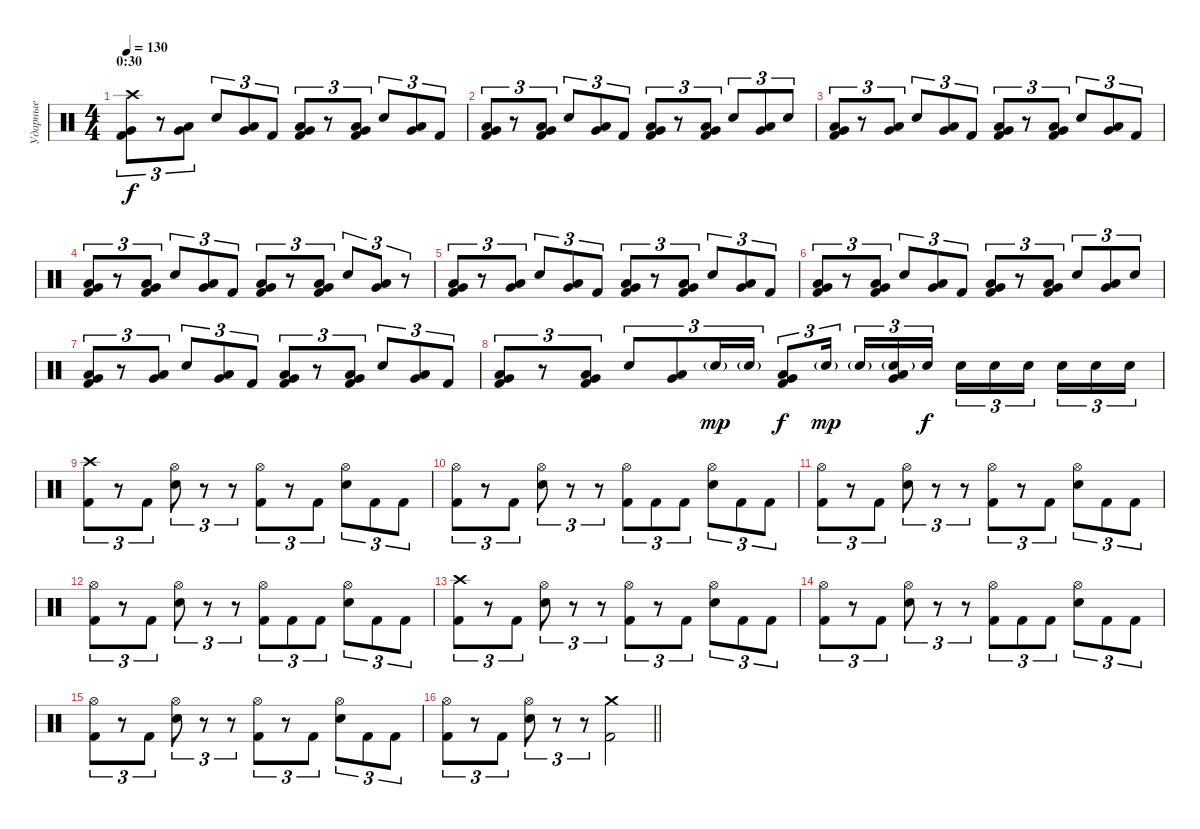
\track ("Ударные" "Ударные") {instrument percussion}
\staff {score}
\articulation defaults
\ts (4 4)
\section ("" "0:30")
\tempo 130
\clef neutral
\ks c
("Crash high (hit)" "Kick (hit) 2" "Very Low Tom (hit)").8{tu (3 2) dy f} r.8{tu (3 2)} ("Low Floor Tom (hit)" "Very Low Tom (hit)").8{tu (3 2)} "Electric Snare (hit)".8{tu (3 2)} ("Low Floor Tom (hit)" "Very Low Tom (hit)").8{tu (3 2)} "Kick (hit) 2".8{tu (3 2)} ("Low Floor Tom (hit)" "Kick (hit) 2" "Very Low Tom (hit)").8{tu (3 2)} r.8{tu (3 2)} ("Low Floor Tom (hit)" "Kick (hit) 2" "Very Low Tom (hit)").8{tu (3 2)} "Electric Snare (hit)".8{tu (3 2)} ("Low Floor Tom (hit)" "Very Low Tom (hit)").8{tu (3 2)} "Kick (hit) 2".8{tu (3 2)} |
("Low Floor Tom (hit)" "Kick (hit) 2" "Very Low Tom (hit)").8{tu (3 2)} r.8{tu (3 2)} ("Low Floor Tom (hit)" "Kick (hit) 2" "Very Low Tom (hit)").8{tu (3 2)} "Electric Snare (hit)".8{tu (3 2)} ("Low Floor Tom (hit)" "Very Low Tom (hit)").8{tu (3 2)} "Kick (hit) 2".8{tu (3 2)} ("Low Floor Tom (hit)" "Kick (hit) 2" "Very Low Tom (hit)").8{tu (3 2)} r.8{tu (3 2)} ("Low Floor Tom (hit)" "Kick (hit) 2" "Very Low Tom (hit)").8{tu (3 2)} "Electric Snare (hit)".8{tu (3 2)} ("Low Floor Tom (hit)" "Very Low Tom (hit)").8{tu (3 2)} "Electric Snare (hit)".8{tu (3 2)} |
("Low Floor Tom (hit)" "Kick (hit) 2" "Very Low Tom (hit)").8{tu (3 2)} r.8{tu (3 2)} ("Low Floor Tom (hit)" "Very Low Tom (hit)").8{tu (3 2)} "Electric Snare (hit)".8{tu (3 2)} ("Low Floor Tom (hit)" "Very Low Tom (hit)").8{tu (3 2)} "Kick (hit) 2".8{tu (3 2)} ("Low Floor Tom (hit)" "Kick (hit) 2" "Very Low Tom (hit)").8{tu (3 2)} r.8{tu (3 2)} ("Low Floor Tom (hit)" "Kick (hit) 2" "Very Low Tom (hit)").8{tu (3 2)} "Electric Snare (hit)".8{tu (3 2)} ("Low Floor Tom (hit)" "Very Low Tom (hit)").8{tu (3 2)} "Kick (hit) 2".8{tu (3 2)} |
("Low Floor Tom (hit)" "Kick (hit) 2" "Very Low Tom (hit)").8{tu (3 2)} r.8{tu (3 2)} ("Low Floor Tom (hit)" "Kick (hit) 2" "Very Low Tom (hit)").8{tu (3 2)} "Electric Snare (hit)".8{tu (3 2)} ("Low Floor Tom (hit)" "Very Low Tom (hit)").8{tu (3 2)} "Kick (hit) 2".8{tu (3 2)} ("Low Floor Tom (hit)" "Kick (hit) 2" "Very Low Tom (hit)").8{tu (3 2)} r.8{tu (3 2)} ("Low Floor Tom (hit)" "Kick (hit) 2" "Very Low Tom (hit)").8{tu (3 2)} "Electric Snare (hit)".8{tu (3 2)} ("Low Floor Tom (hit)" "Very Low Tom (hit)").8{tu (3 2)} r.8{tu (3 2)} |
("Low Floor Tom (hit)" "Kick (hit) 2" "Very Low Tom (hit)").8{tu (3 2)} r.8{tu (3 2)} ("Low Floor Tom (hit)" "Very Low Tom (hit)").8{tu (3 2)} "Electric Snare (hit)".8{tu (3 2)} ("Low Floor Tom (hit)" "Very Low Tom (hit)").8{tu (3 2)} "Kick (hit) 2".8{tu (3 2)} ("Low Floor Tom (hit)" "Kick (hit) 2" "Very Low Tom (hit)").8{tu (3 2)} r.8{tu (3 2)} ("Low Floor Tom (hit)" "Kick (hit) 2" "Very Low Tom (hit)").8{tu (3 2)} "Electric Snare (hit)".8{tu (3 2)} ("Low Floor Tom (hit)" "Very Low Tom (hit)").8{tu (3 2)} "Kick (hit) 2".8{tu (3 2)} |
("Low Floor Tom (hit)" "Kick (hit) 2" "Very Low Tom (hit)").8{tu (3 2)} r.8{tu (3 2)} ("Low Floor Tom (hit)" "Kick (hit) 2" "Very Low Tom (hit)").8{tu (3 2)} "Electric Snare (hit)".8{tu (3 2)} ("Low Floor Tom (hit)" "Very Low Tom (hit)").8{tu (3 2)} "Kick (hit) 2".8{tu (3 2)} ("Low Floor Tom (hit)" "Kick (hit) 2" "Very Low Tom (hit)").8{tu (3 2)} r.8{tu (3 2)} ("Low Floor Tom (hit)" "Kick (hit) 2" "Very Low Tom (hit)").8{tu (3 2)} "Electric Snare (hit)".8{tu (3 2)} ("Low Floor Tom (hit)" "Very Low Tom (hit)").8{tu (3 2)} "Electric Snare (hit)".8{tu (3 2)} |
("Low Floor Tom (hit)" "Kick (hit) 2" "Very Low Tom (hit)").8{tu (3 2)} r.8{tu (3 2)} ("Low Floor Tom (hit)" "Very Low Tom (hit)").8{tu (3 2)} "Electric Snare (hit)".8{tu (3 2)} ("Low Floor Tom (hit)" "Very Low Tom (hit)").8{tu (3 2)} "Kick (hit) 2".8{tu (3 2)} ("Low Floor Tom (hit)" "Kick (hit) 2" "Very Low Tom (hit)").8{tu (3 2)} r.8{tu (3 2)} ("Low Floor Tom (hit)" "Kick (hit) 2" "Very Low Tom (hit)").8{tu (3 2)} "Electric Snare (hit)".8{tu (3 2)} ("Low Floor Tom (hit)" "Very Low Tom (hit)").8{tu (3 2)} "Kick (hit) 2".8{tu (3 2)} |
("Low Floor Tom (hit)" "Kick (hit) 2" "Very Low Tom (hit)").8{tu (3 2)} r.8{tu (3 2)} ("Low Floor Tom (hit)" "Kick (hit) 2" "Very Low Tom (hit)").8{tu (3 2)} "Electric Snare (hit)".8{tu (3 2)} ("Low Floor Tom (hit)" "Very Low Tom (hit)").8{tu (3 2)} "Electric Snare (hit)"{g}.16{tu (3 2) dy mp} "Electric Snare (hit)"{g}.16{tu (3 2)} ("Low Floor Tom (hit)" "Kick (hit) 2" "Very Low Tom (hit)").8{tu (3 2) dy f} "Electric Snare (hit)"{g}.16{tu (3 2) dy mp beam splitsecondary} "Electric Snare (hit)"{g}.16{tu (3 2)} ("Low Floor Tom (hit)" "Electric Snare (hit)"{g} "Very Low Tom (hit)").16{tu (3 2)} "Electric Snare (hit)".16{tu (3 2) dy f} "Electric Snare (hit)".16{tu (3 2)} "Electric Snare (hit)".16{tu (3 2)} "Electric Snare (hit)".16{tu (3 2) beam splitsecondary} "Electric Snare (hit)".16{tu (3 2)} "Electric Snare (hit)".16{tu (3 2)} "Electric Snare (hit)".16{tu (3 2)} |
("Crash high (hit)" "Kick (hit) 2").8{tu (3 2)} r.8{tu (3 2)} "Kick (hit) 2".8{tu (3 2)} ("Hi-Hat (open)" "Electric Snare (hit)").8{tu (3 2)} r.8{tu (3 2)} r.8{tu (3 2)} ("Hi-Hat (open)" "Kick (hit) 2").8{tu (3 2)} r.8{tu (3 2)} "Kick (hit) 2".8{tu (3 2)} ("Hi-Hat (open)" "Electric Snare (hit)").8{tu (3 2)} "Kick (hit) 2".8{tu (3 2)} "Kick (hit) 2".8{tu (3 2)} |
("Hi-Hat (open)" "Kick (hit) 2").8{tu (3 2)} r.8{tu (3 2)} "Kick (hit) 2".8{tu (3 2)} ("Hi-Hat (open)" "Electric Snare (hit)").8{tu (3 2)} r.8{tu (3 2)} r.8{tu (3 2)} ("Hi-Hat (open)" "Kick (hit) 2").8{tu (3 2)} "Kick (hit) 2".8{tu (3 2)} "Kick (hit) 2".8{tu (3 2)} ("Hi-Hat (open)" "Electric Snare (hit)").8{tu (3 2)} "Kick (hit) 2".8{tu (3 2)} "Kick (hit) 2".8{tu (3 2)} |
("Hi-Hat (open)" "Kick (hit) 2").8{tu (3 2)} r.8{tu (3 2)} "Kick (hit) 2".8{tu (3 2)} ("Hi-Hat (open)" "Electric Snare (hit)").8{tu (3 2)} r.8{tu (3 2)} r.8{tu (3 2)} ("Hi-Hat (open)" "Kick (hit) 2").8{tu (3 2)} r.8{tu (3 2)} "Kick (hit) 2".8{tu (3 2)} ("Hi-Hat (open)" "Electric Snare (hit)").8{tu (3 2)} "Kick (hit) 2".8{tu (3 2)} "Kick (hit) 2".8{tu (3 2)} |
("Hi-Hat (open)" "Kick (hit) 2").8{tu (3 2)} r.8{tu (3 2)} "Kick (hit) 2".8{tu (3 2)} ("Hi-Hat (open)" "Electric Snare (hit)").8{tu (3 2)} r.8{tu (3 2)} r.8{tu (3 2)} ("Hi-Hat (open)" "Kick (hit) 2").8{tu (3 2)} "Kick (hit) 2".8{tu (3 2)} "Kick (hit) 2".8{tu (3 2)} ("Hi-Hat (open)" "Electric Snare (hit)").8{tu (3 2)} "Kick (hit) 2".8{tu (3 2)} "Kick (hit) 2".8{tu (3 2)} |
("Crash high (hit)" "Kick (hit) 2").8{tu (3 2)} r.8{tu (3 2)} "Kick (hit) 2".8{tu (3 2)} ("Hi-Hat (open)" "Electric Snare (hit)").8{tu (3 2)} r.8{tu (3 2)} r.8{tu (3 2)} ("Hi-Hat (open)" "Kick (hit) 2").8{tu (3 2)} r.8{tu (3 2)} "Kick (hit) 2".8{tu (3 2)} ("Hi-Hat (open)" "Electric Snare (hit)").8{tu (3 2)} "Kick (hit) 2".8{tu (3 2)} "Kick (hit) 2".8{tu (3 2)} |
("Hi-Hat (open)" "Kick (hit) 2").8{tu (3 2)} r.8{tu (3 2)} "Kick (hit) 2".8{tu (3 2)} ("Hi-Hat (open)" "Electric Snare (hit)").8{tu (3 2)} r.8{tu (3 2)} r.8{tu (3 2)} ("Hi-Hat (open)" "Kick (hit) 2").8{tu (3 2)} "Kick (hit) 2".8{tu (3 2)} "Kick (hit) 2".8{tu (3 2)} ("Hi-Hat (open)" "Electric Snare (hit)").8{tu (3 2)} "Kick (hit) 2".8{tu (3 2)} "Kick (hit) 2".8{tu (3 2)} |
("Hi-Hat (open)" "Kick (hit) 2").8{tu (3 2)} r.8{tu (3 2)} "Kick (hit) 2".8{tu (3 2)} ("Hi-Hat (open)" "Electric Snare (hit)").8{tu (3 2)} r.8{tu (3 2)} r.8{tu (3 2)} ("Hi-Hat (open)" "Kick (hit) 2").8{tu (3 2)} r.8{tu (3 2)} "Kick (hit) 2".8{tu (3 2)} ("Hi-Hat (open)" "Electric Snare (hit)").8{tu (3 2)} "Kick (hit) 2".8{tu (3 2)} "Kick (hit) 2".8{tu (3 2)} |
\barLineRight lightlight
("Hi-Hat (open)" "Kick (hit) 2").8{tu (3 2)} r.8{tu (3 2)} "Kick (hit) 2".8{tu (3 2)} ("Hi-Hat (open)" "Electric Snare (hit)").8{tu (3 2)} r.8{tu (3 2)} r.8{tu (3 2)} ("Crash medium (hit)" "Kick (hit) 2").2
